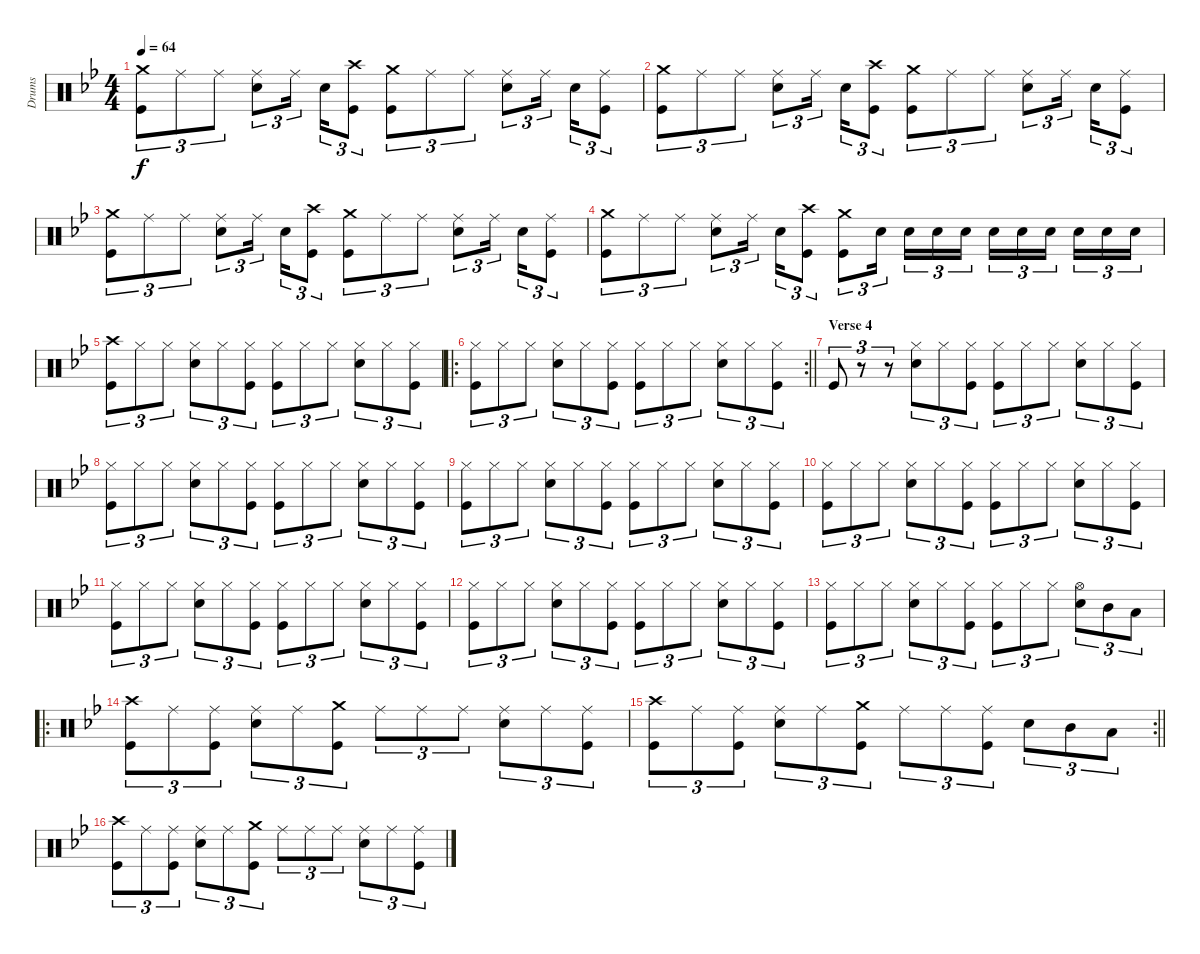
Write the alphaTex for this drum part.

\track ("Drums" "Drums") {instrument percussion}
\staff {score}
\articulation defaults
\ts (4 4)
\tempo 64
\clef neutral
\ks bb
("Crash medium (hit)" "Kick (hit)").8{tu (3 2) dy f} "Ride (middle)".8{tu (3 2)} "Ride (middle)".8{tu (3 2)} ("Ride (middle)" "Snare (hit) 2").8{tu (3 2)} "Ride (middle)".16{tu (3 2) beam splitsecondary} "Snare (hit) 2".16{tu (3 2)} ("Crash high (hit)" "Kick (hit)").8{tu (3 2)} ("Crash medium (hit)" "Kick (hit)").8{tu (3 2)} "Ride (middle)".8{tu (3 2)} "Ride (middle)".8{tu (3 2)} ("Ride (middle)" "Snare (hit) 2").8{tu (3 2)} "Ride (middle)".16{tu (3 2) beam splitsecondary} "Snare (hit) 2".16{tu (3 2)} ("Ride (middle)" "Kick (hit)").8{tu (3 2)} |
("Crash medium (hit)" "Kick (hit)").8{tu (3 2)} "Ride (middle)".8{tu (3 2)} "Ride (middle)".8{tu (3 2)} ("Ride (middle)" "Snare (hit) 2").8{tu (3 2)} "Ride (middle)".16{tu (3 2) beam splitsecondary} "Snare (hit) 2".16{tu (3 2)} ("Crash high (hit)" "Kick (hit)").8{tu (3 2)} ("Crash medium (hit)" "Kick (hit)").8{tu (3 2)} "Ride (middle)".8{tu (3 2)} "Ride (middle)".8{tu (3 2)} ("Ride (middle)" "Snare (hit) 2").8{tu (3 2)} "Ride (middle)".16{tu (3 2) beam splitsecondary} "Snare (hit) 2".16{tu (3 2)} ("Ride (middle)" "Kick (hit)").8{tu (3 2)} |
("Crash medium (hit)" "Kick (hit)").8{tu (3 2)} "Ride (middle)".8{tu (3 2)} "Ride (middle)".8{tu (3 2)} ("Ride (middle)" "Snare (hit) 2").8{tu (3 2)} "Ride (middle)".16{tu (3 2) beam splitsecondary} "Snare (hit) 2".16{tu (3 2)} ("Crash high (hit)" "Kick (hit)").8{tu (3 2)} ("Crash medium (hit)" "Kick (hit)").8{tu (3 2)} "Ride (middle)".8{tu (3 2)} "Ride (middle)".8{tu (3 2)} ("Ride (middle)" "Snare (hit) 2").8{tu (3 2)} "Ride (middle)".16{tu (3 2) beam splitsecondary} "Snare (hit) 2".16{tu (3 2)} ("Ride (middle)" "Kick (hit)").8{tu (3 2)} |
("Crash medium (hit)" "Kick (hit)").8{tu (3 2)} "Ride (middle)".8{tu (3 2)} "Ride (middle)".8{tu (3 2)} ("Ride (middle)" "Snare (hit) 2").8{tu (3 2)} "Ride (middle)".16{tu (3 2) beam splitsecondary} "Snare (hit) 2".16{tu (3 2)} ("Crash high (hit)" "Kick (hit)").8{tu (3 2)} ("Crash medium (hit)" "Kick (hit)").8{tu (3 2)} "Snare (hit) 2".16{tu (3 2) beam splitsecondary} "Snare (hit) 2".16{tu (3 2)} "Snare (hit) 2".16{tu (3 2)} "Snare (hit) 2".16{tu (3 2)} "Snare (hit) 2".16{tu (3 2)} "Snare (hit) 2".16{tu (3 2)} "Snare (hit) 2".16{tu (3 2) beam splitsecondary} "Snare (hit) 2".16{tu (3 2)} "Snare (hit) 2".16{tu (3 2)} "Snare (hit) 2".16{tu (3 2)} |
("Crash high (hit)" "Kick (hit)").8{tu (3 2)} "Hi-Hat (closed)".8{tu (3 2)} "Hi-Hat (closed)".8{tu (3 2)} ("Hi-Hat (closed)" "Snare (hit) 2").8{tu (3 2)} "Hi-Hat (closed)".8{tu (3 2)} ("Hi-Hat (closed)" "Kick (hit)").8{tu (3 2)} ("Hi-Hat (closed)" "Kick (hit)").8{tu (3 2)} "Hi-Hat (closed)".8{tu (3 2)} "Hi-Hat (closed)".8{tu (3 2)} ("Hi-Hat (closed)" "Snare (hit) 2").8{tu (3 2)} "Hi-Hat (closed)".8{tu (3 2)} ("Hi-Hat (closed)" "Kick (hit)").8{tu (3 2)} |
\ro
\rc 2
\barLineRight lightlight
("Hi-Hat (closed)" "Kick (hit)").8{tu (3 2)} "Hi-Hat (closed)".8{tu (3 2)} "Hi-Hat (closed)".8{tu (3 2)} ("Hi-Hat (closed)" "Snare (hit) 2").8{tu (3 2)} "Hi-Hat (closed)".8{tu (3 2)} ("Hi-Hat (closed)" "Kick (hit)").8{tu (3 2)} ("Hi-Hat (closed)" "Kick (hit)").8{tu (3 2)} "Hi-Hat (closed)".8{tu (3 2)} "Hi-Hat (closed)".8{tu (3 2)} ("Hi-Hat (closed)" "Snare (hit) 2").8{tu (3 2)} "Hi-Hat (closed)".8{tu (3 2)} ("Hi-Hat (closed)" "Kick (hit)").8{tu (3 2)} |
\section ("" "Verse 4")
"Kick (hit)".8{tu (3 2)} r.8{tu (3 2)} r.8{tu (3 2)} ("Hi-Hat (closed)" "Snare (hit) 2").8{tu (3 2)} "Hi-Hat (closed)".8{tu (3 2)} ("Hi-Hat (closed)" "Kick (hit)").8{tu (3 2)} ("Hi-Hat (closed)" "Kick (hit)").8{tu (3 2)} "Hi-Hat (closed)".8{tu (3 2)} "Hi-Hat (closed)".8{tu (3 2)} ("Hi-Hat (closed)" "Snare (hit) 2").8{tu (3 2)} "Hi-Hat (closed)".8{tu (3 2)} ("Hi-Hat (closed)" "Kick (hit)").8{tu (3 2)} |
("Hi-Hat (closed)" "Kick (hit)").8{tu (3 2)} "Hi-Hat (closed)".8{tu (3 2)} "Hi-Hat (closed)".8{tu (3 2)} ("Hi-Hat (closed)" "Snare (hit) 2").8{tu (3 2)} "Hi-Hat (closed)".8{tu (3 2)} ("Hi-Hat (closed)" "Kick (hit)").8{tu (3 2)} ("Hi-Hat (closed)" "Kick (hit)").8{tu (3 2)} "Hi-Hat (closed)".8{tu (3 2)} "Hi-Hat (closed)".8{tu (3 2)} ("Hi-Hat (closed)" "Snare (hit) 2").8{tu (3 2)} "Hi-Hat (closed)".8{tu (3 2)} ("Hi-Hat (closed)" "Kick (hit)").8{tu (3 2)} |
("Hi-Hat (closed)" "Kick (hit)").8{tu (3 2)} "Hi-Hat (closed)".8{tu (3 2)} "Hi-Hat (closed)".8{tu (3 2)} ("Hi-Hat (closed)" "Snare (hit) 2").8{tu (3 2)} "Hi-Hat (closed)".8{tu (3 2)} ("Hi-Hat (closed)" "Kick (hit)").8{tu (3 2)} ("Hi-Hat (closed)" "Kick (hit)").8{tu (3 2)} "Hi-Hat (closed)".8{tu (3 2)} "Hi-Hat (closed)".8{tu (3 2)} ("Hi-Hat (closed)" "Snare (hit) 2").8{tu (3 2)} "Hi-Hat (closed)".8{tu (3 2)} ("Hi-Hat (closed)" "Kick (hit)").8{tu (3 2)} |
("Hi-Hat (closed)" "Kick (hit)").8{tu (3 2)} "Hi-Hat (closed)".8{tu (3 2)} "Hi-Hat (closed)".8{tu (3 2)} ("Hi-Hat (closed)" "Snare (hit) 2").8{tu (3 2)} "Hi-Hat (closed)".8{tu (3 2)} ("Hi-Hat (closed)" "Kick (hit)").8{tu (3 2)} ("Hi-Hat (closed)" "Kick (hit)").8{tu (3 2)} "Hi-Hat (closed)".8{tu (3 2)} "Hi-Hat (closed)".8{tu (3 2)} ("Hi-Hat (closed)" "Snare (hit) 2").8{tu (3 2)} "Hi-Hat (closed)".8{tu (3 2)} ("Hi-Hat (closed)" "Kick (hit)").8{tu (3 2)} |
("Hi-Hat (closed)" "Kick (hit)").8{tu (3 2)} "Hi-Hat (closed)".8{tu (3 2)} "Hi-Hat (closed)".8{tu (3 2)} ("Hi-Hat (closed)" "Snare (hit) 2").8{tu (3 2)} "Hi-Hat (closed)".8{tu (3 2)} ("Hi-Hat (closed)" "Kick (hit)").8{tu (3 2)} ("Hi-Hat (closed)" "Kick (hit)").8{tu (3 2)} "Hi-Hat (closed)".8{tu (3 2)} "Hi-Hat (closed)".8{tu (3 2)} ("Hi-Hat (closed)" "Snare (hit) 2").8{tu (3 2)} "Hi-Hat (closed)".8{tu (3 2)} ("Hi-Hat (closed)" "Kick (hit)").8{tu (3 2)} |
("Hi-Hat (closed)" "Kick (hit)").8{tu (3 2)} "Hi-Hat (closed)".8{tu (3 2)} "Hi-Hat (closed)".8{tu (3 2)} ("Hi-Hat (closed)" "Snare (hit) 2").8{tu (3 2)} "Hi-Hat (closed)".8{tu (3 2)} ("Hi-Hat (closed)" "Kick (hit)").8{tu (3 2)} ("Hi-Hat (closed)" "Kick (hit)").8{tu (3 2)} "Hi-Hat (closed)".8{tu (3 2)} "Hi-Hat (closed)".8{tu (3 2)} ("Hi-Hat (closed)" "Snare (hit) 2").8{tu (3 2)} "Hi-Hat (closed)".8{tu (3 2)} ("Hi-Hat (closed)" "Kick (hit)").8{tu (3 2)} |
("Hi-Hat (closed)" "Kick (hit)").8{tu (3 2)} "Hi-Hat (closed)".8{tu (3 2)} "Hi-Hat (closed)".8{tu (3 2)} ("Hi-Hat (closed)" "Snare (hit) 2").8{tu (3 2)} "Hi-Hat (closed)".8{tu (3 2)} ("Hi-Hat (closed)" "Kick (hit)").8{tu (3 2)} ("Hi-Hat (closed)" "Kick (hit)").8{tu (3 2)} "Hi-Hat (closed)".8{tu (3 2)} "Hi-Hat (closed)".8{tu (3 2)} ("Hi-Hat (open)" "Snare (hit) 2").8{tu (3 2)} "Mid Tom (hit)".8{tu (3 2)} "Low Tom (hit)".8{tu (3 2)} |
\ro
("Crash high (hit)" "Kick (hit)").8{tu (3 2)} "Ride (middle)".8{tu (3 2)} ("Ride (middle)" "Kick (hit)").8{tu (3 2)} ("Ride (middle)" "Snare (hit) 2").8{tu (3 2)} "Ride (middle)".8{tu (3 2)} ("Crash medium (hit)" "Kick (hit)").8{tu (3 2)} "Ride (middle)".8{tu (3 2)} "Ride (middle)".8{tu (3 2)} "Ride (middle)".8{tu (3 2)} ("Ride (middle)" "Snare (hit) 2").8{tu (3 2)} "Ride (middle)".8{tu (3 2)} ("Ride (middle)" "Kick (hit)").8{tu (3 2)} |
\rc 2
\barLineRight lightlight
("Crash high (hit)" "Kick (hit)").8{tu (3 2)} "Ride (middle)".8{tu (3 2)} ("Ride (middle)" "Kick (hit)").8{tu (3 2)} ("Ride (middle)" "Snare (hit) 2").8{tu (3 2)} "Ride (middle)".8{tu (3 2)} ("Crash medium (hit)" "Kick (hit)").8{tu (3 2)} "Ride (middle)".8{tu (3 2)} "Ride (middle)".8{tu (3 2)} ("Ride (middle)" "Kick (hit)").8{tu (3 2)} "Snare (hit) 2".8{tu (3 2)} "Mid Tom (hit)".8{tu (3 2)} "Low Tom (hit)".8{tu (3 2)} |
("Crash high (hit)" "Kick (hit)").8{tu (3 2)} "Ride (middle)".8{tu (3 2)} ("Ride (middle)" "Kick (hit)").8{tu (3 2)} ("Ride (middle)" "Snare (hit) 2").8{tu (3 2)} "Ride (middle)".8{tu (3 2)} ("Crash medium (hit)" "Kick (hit)").8{tu (3 2)} "Ride (middle)".8{tu (3 2)} "Ride (middle)".8{tu (3 2)} "Ride (middle)".8{tu (3 2)} ("Ride (middle)" "Snare (hit) 2").8{tu (3 2)} "Ride (middle)".8{tu (3 2)} ("Ride (middle)" "Kick (hit)").8{tu (3 2)}
